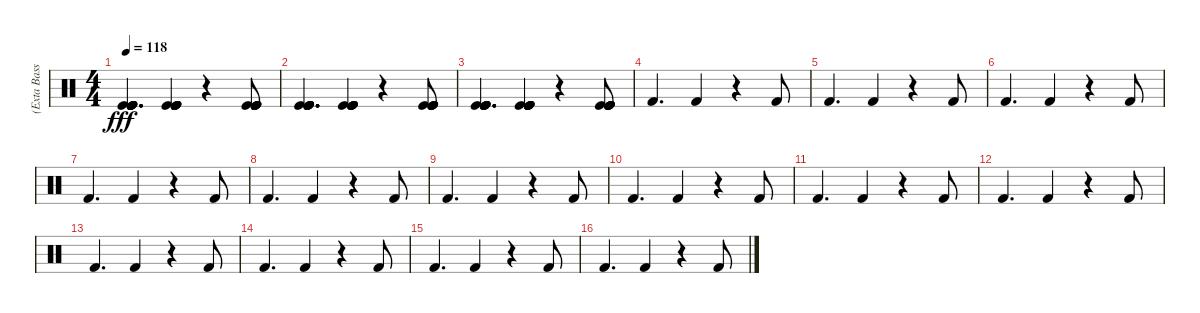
\track ("(Exta Bass Boost)Eddie Fisher" "(Exta Bass") {instrument percussion}
\staff {score}
\articulation defaults
\ts (4 4)
\tempo 118
\clef neutral
\ks c
("Kick (hit)" "Kick (hit)" "Kick (hit)" "Kick (hit)" "Kick (hit)" "Kick (hit)").4{d dy fff} ("Kick (hit)" "Kick (hit)" "Kick (hit)" "Kick (hit)" "Kick (hit)" "Kick (hit)").4 r.4 ("Kick (hit)" "Kick (hit)" "Kick (hit)" "Kick (hit)" "Kick (hit)" "Kick (hit)").8 |
("Kick (hit)" "Kick (hit)" "Kick (hit)" "Kick (hit)" "Kick (hit)" "Kick (hit)").4{d} ("Kick (hit)" "Kick (hit)" "Kick (hit)" "Kick (hit)" "Kick (hit)" "Kick (hit)").4 r.4 ("Kick (hit)" "Kick (hit)" "Kick (hit)" "Kick (hit)" "Kick (hit)" "Kick (hit)").8 |
("Kick (hit)" "Kick (hit)" "Kick (hit)" "Kick (hit)" "Kick (hit)" "Kick (hit)").4{d} ("Kick (hit)" "Kick (hit)" "Kick (hit)" "Kick (hit)" "Kick (hit)" "Kick (hit)").4 r.4 ("Kick (hit)" "Kick (hit)" "Kick (hit)" "Kick (hit)" "Kick (hit)" "Kick (hit)").8 |
"Kick (hit) 2".4{d} "Kick (hit) 2".4 r.4 "Kick (hit) 2".8 |
"Kick (hit) 2".4{d} "Kick (hit) 2".4 r.4 "Kick (hit) 2".8 |
"Kick (hit) 2".4{d} "Kick (hit) 2".4 r.4 "Kick (hit) 2".8 |
"Kick (hit) 2".4{d} "Kick (hit) 2".4 r.4 "Kick (hit) 2".8 |
"Kick (hit) 2".4{d} "Kick (hit) 2".4 r.4 "Kick (hit) 2".8 |
"Kick (hit) 2".4{d} "Kick (hit) 2".4 r.4 "Kick (hit) 2".8 |
"Kick (hit) 2".4{d} "Kick (hit) 2".4 r.4 "Kick (hit) 2".8 |
"Kick (hit) 2".4{d} "Kick (hit) 2".4 r.4 "Kick (hit) 2".8 |
"Kick (hit) 2".4{d} "Kick (hit) 2".4 r.4 "Kick (hit) 2".8 |
"Kick (hit) 2".4{d} "Kick (hit) 2".4 r.4 "Kick (hit) 2".8 |
"Kick (hit) 2".4{d} "Kick (hit) 2".4 r.4 "Kick (hit) 2".8 |
"Kick (hit) 2".4{d} "Kick (hit) 2".4 r.4 "Kick (hit) 2".8 |
"Kick (hit) 2".4{d} "Kick (hit) 2".4 r.4 "Kick (hit) 2".8
